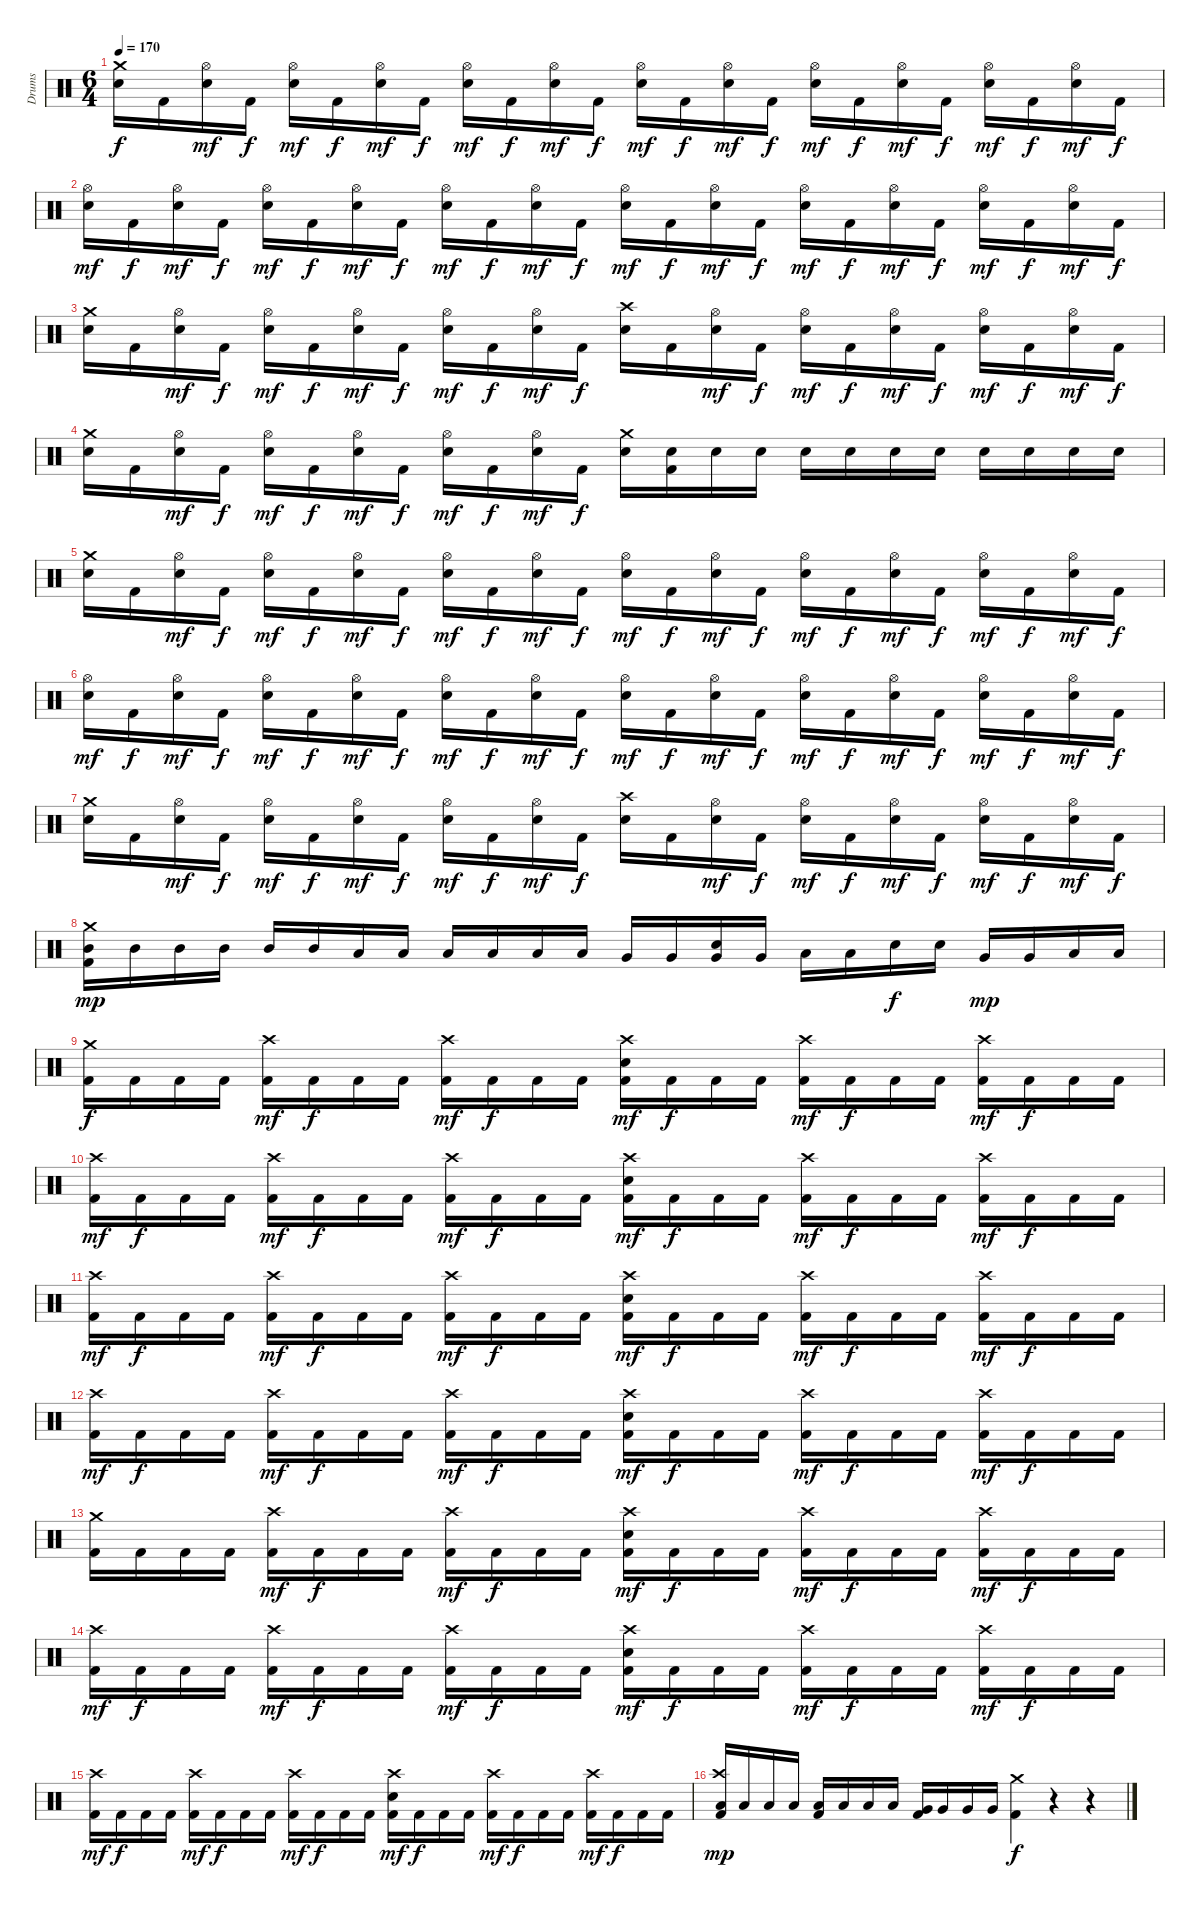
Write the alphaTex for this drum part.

\track ("Drums" "Drums") {instrument percussion}
\staff {score}
\articulation defaults
\ts (6 4)
\tempo 170
\clef neutral
\ks c
("Crash medium (hit)" "Electric Snare (hit)").16{dy f} "Kick (hit) 2".16 ("Hi-Hat (open)" "Electric Snare (hit)").16{dy mf} "Kick (hit) 2".16{dy f} ("Hi-Hat (open)" "Electric Snare (hit)").16{dy mf} "Kick (hit) 2".16{dy f} ("Hi-Hat (open)" "Electric Snare (hit)").16{dy mf} "Kick (hit) 2".16{dy f} ("Hi-Hat (open)" "Electric Snare (hit)").16{dy mf} "Kick (hit) 2".16{dy f} ("Hi-Hat (open)" "Electric Snare (hit)").16{dy mf} "Kick (hit) 2".16{dy f} ("Hi-Hat (open)" "Electric Snare (hit)").16{dy mf} "Kick (hit) 2".16{dy f} ("Hi-Hat (open)" "Electric Snare (hit)").16{dy mf} "Kick (hit) 2".16{dy f} ("Hi-Hat (open)" "Electric Snare (hit)").16{dy mf} "Kick (hit) 2".16{dy f} ("Hi-Hat (open)" "Electric Snare (hit)").16{dy mf} "Kick (hit) 2".16{dy f} ("Hi-Hat (open)" "Electric Snare (hit)").16{dy mf} "Kick (hit) 2".16{dy f} ("Hi-Hat (open)" "Electric Snare (hit)").16{dy mf} "Kick (hit) 2".16{dy f} |
("Hi-Hat (open)" "Electric Snare (hit)").16{dy mf} "Kick (hit) 2".16{dy f} ("Hi-Hat (open)" "Electric Snare (hit)").16{dy mf} "Kick (hit) 2".16{dy f} ("Hi-Hat (open)" "Electric Snare (hit)").16{dy mf} "Kick (hit) 2".16{dy f} ("Hi-Hat (open)" "Electric Snare (hit)").16{dy mf} "Kick (hit) 2".16{dy f} ("Hi-Hat (open)" "Electric Snare (hit)").16{dy mf} "Kick (hit) 2".16{dy f} ("Hi-Hat (open)" "Electric Snare (hit)").16{dy mf} "Kick (hit) 2".16{dy f} ("Hi-Hat (open)" "Electric Snare (hit)").16{dy mf} "Kick (hit) 2".16{dy f} ("Hi-Hat (open)" "Electric Snare (hit)").16{dy mf} "Kick (hit) 2".16{dy f} ("Hi-Hat (open)" "Electric Snare (hit)").16{dy mf} "Kick (hit) 2".16{dy f} ("Hi-Hat (open)" "Electric Snare (hit)").16{dy mf} "Kick (hit) 2".16{dy f} ("Hi-Hat (open)" "Electric Snare (hit)").16{dy mf} "Kick (hit) 2".16{dy f} ("Hi-Hat (open)" "Electric Snare (hit)").16{dy mf} "Kick (hit) 2".16{dy f} |
("Crash medium (hit)" "Electric Snare (hit)").16 "Kick (hit) 2".16 ("Hi-Hat (open)" "Electric Snare (hit)").16{dy mf} "Kick (hit) 2".16{dy f} ("Hi-Hat (open)" "Electric Snare (hit)").16{dy mf} "Kick (hit) 2".16{dy f} ("Hi-Hat (open)" "Electric Snare (hit)").16{dy mf} "Kick (hit) 2".16{dy f} ("Hi-Hat (open)" "Electric Snare (hit)").16{dy mf} "Kick (hit) 2".16{dy f} ("Hi-Hat (open)" "Electric Snare (hit)").16{dy mf} "Kick (hit) 2".16{dy f} ("Crash high (hit)" "Electric Snare (hit)").16 "Kick (hit) 2".16 ("Hi-Hat (open)" "Electric Snare (hit)").16{dy mf} "Kick (hit) 2".16{dy f} ("Hi-Hat (open)" "Electric Snare (hit)").16{dy mf} "Kick (hit) 2".16{dy f} ("Hi-Hat (open)" "Electric Snare (hit)").16{dy mf} "Kick (hit) 2".16{dy f} ("Hi-Hat (open)" "Electric Snare (hit)").16{dy mf} "Kick (hit) 2".16{dy f} ("Hi-Hat (open)" "Electric Snare (hit)").16{dy mf} "Kick (hit) 2".16{dy f} |
("Crash medium (hit)" "Electric Snare (hit)").16 "Kick (hit) 2".16 ("Hi-Hat (open)" "Electric Snare (hit)").16{dy mf} "Kick (hit) 2".16{dy f} ("Hi-Hat (open)" "Electric Snare (hit)").16{dy mf} "Kick (hit) 2".16{dy f} ("Hi-Hat (open)" "Electric Snare (hit)").16{dy mf} "Kick (hit) 2".16{dy f} ("Hi-Hat (open)" "Electric Snare (hit)").16{dy mf} "Kick (hit) 2".16{dy f} ("Hi-Hat (open)" "Electric Snare (hit)").16{dy mf} "Kick (hit) 2".16{dy f} ("Crash medium (hit)" "Electric Snare (hit)").16 ("Electric Snare (hit)" "Kick (hit) 2").16 "Electric Snare (hit)".16 "Electric Snare (hit)".16 "Electric Snare (hit)".16 "Electric Snare (hit)".16 "Electric Snare (hit)".16 "Electric Snare (hit)".16 "Electric Snare (hit)".16 "Electric Snare (hit)".16 "Electric Snare (hit)".16 "Electric Snare (hit)".16 |
("Crash medium (hit)" "Electric Snare (hit)").16 "Kick (hit) 2".16 ("Hi-Hat (open)" "Electric Snare (hit)").16{dy mf} "Kick (hit) 2".16{dy f} ("Hi-Hat (open)" "Electric Snare (hit)").16{dy mf} "Kick (hit) 2".16{dy f} ("Hi-Hat (open)" "Electric Snare (hit)").16{dy mf} "Kick (hit) 2".16{dy f} ("Hi-Hat (open)" "Electric Snare (hit)").16{dy mf} "Kick (hit) 2".16{dy f} ("Hi-Hat (open)" "Electric Snare (hit)").16{dy mf} "Kick (hit) 2".16{dy f} ("Hi-Hat (open)" "Electric Snare (hit)").16{dy mf} "Kick (hit) 2".16{dy f} ("Hi-Hat (open)" "Electric Snare (hit)").16{dy mf} "Kick (hit) 2".16{dy f} ("Hi-Hat (open)" "Electric Snare (hit)").16{dy mf} "Kick (hit) 2".16{dy f} ("Hi-Hat (open)" "Electric Snare (hit)").16{dy mf} "Kick (hit) 2".16{dy f} ("Hi-Hat (open)" "Electric Snare (hit)").16{dy mf} "Kick (hit) 2".16{dy f} ("Hi-Hat (open)" "Electric Snare (hit)").16{dy mf} "Kick (hit) 2".16{dy f} |
("Hi-Hat (open)" "Electric Snare (hit)").16{dy mf} "Kick (hit) 2".16{dy f} ("Hi-Hat (open)" "Electric Snare (hit)").16{dy mf} "Kick (hit) 2".16{dy f} ("Hi-Hat (open)" "Electric Snare (hit)").16{dy mf} "Kick (hit) 2".16{dy f} ("Hi-Hat (open)" "Electric Snare (hit)").16{dy mf} "Kick (hit) 2".16{dy f} ("Hi-Hat (open)" "Electric Snare (hit)").16{dy mf} "Kick (hit) 2".16{dy f} ("Hi-Hat (open)" "Electric Snare (hit)").16{dy mf} "Kick (hit) 2".16{dy f} ("Hi-Hat (open)" "Electric Snare (hit)").16{dy mf} "Kick (hit) 2".16{dy f} ("Hi-Hat (open)" "Electric Snare (hit)").16{dy mf} "Kick (hit) 2".16{dy f} ("Hi-Hat (open)" "Electric Snare (hit)").16{dy mf} "Kick (hit) 2".16{dy f} ("Hi-Hat (open)" "Electric Snare (hit)").16{dy mf} "Kick (hit) 2".16{dy f} ("Hi-Hat (open)" "Electric Snare (hit)").16{dy mf} "Kick (hit) 2".16{dy f} ("Hi-Hat (open)" "Electric Snare (hit)").16{dy mf} "Kick (hit) 2".16{dy f} |
("Crash medium (hit)" "Electric Snare (hit)").16 "Kick (hit) 2".16 ("Hi-Hat (open)" "Electric Snare (hit)").16{dy mf} "Kick (hit) 2".16{dy f} ("Hi-Hat (open)" "Electric Snare (hit)").16{dy mf} "Kick (hit) 2".16{dy f} ("Hi-Hat (open)" "Electric Snare (hit)").16{dy mf} "Kick (hit) 2".16{dy f} ("Hi-Hat (open)" "Electric Snare (hit)").16{dy mf} "Kick (hit) 2".16{dy f} ("Hi-Hat (open)" "Electric Snare (hit)").16{dy mf} "Kick (hit) 2".16{dy f} ("Crash high (hit)" "Electric Snare (hit)").16 "Kick (hit) 2".16 ("Hi-Hat (open)" "Electric Snare (hit)").16{dy mf} "Kick (hit) 2".16{dy f} ("Hi-Hat (open)" "Electric Snare (hit)").16{dy mf} "Kick (hit) 2".16{dy f} ("Hi-Hat (open)" "Electric Snare (hit)").16{dy mf} "Kick (hit) 2".16{dy f} ("Hi-Hat (open)" "Electric Snare (hit)").16{dy mf} "Kick (hit) 2".16{dy f} ("Hi-Hat (open)" "Electric Snare (hit)").16{dy mf} "Kick (hit) 2".16{dy f} |
("Crash medium (hit)" "Mid Tom (hit)" "Kick (hit) 2").16{dy mp} "Mid Tom (hit)".16 "Mid Tom (hit)".16 "Mid Tom (hit)".16 "Mid Tom (hit)".16 "Mid Tom (hit)".16 "Low Tom (hit)".16 "Low Tom (hit)".16 "Low Tom (hit)".16 "Low Tom (hit)".16 "Low Tom (hit)".16 "Low Tom (hit)".16 "Very Low Tom (hit)".16 "Very Low Tom (hit)".16 ("Very Low Tom (hit)" "Electric Snare (hit)").16 "Very Low Tom (hit)".16 "Low Floor Tom (hit)".16 "Low Floor Tom (hit)".16 "Electric Snare (hit)".16{dy f} "Electric Snare (hit)".16 "Very Low Tom (hit)".16{dy mp} "Very Low Tom (hit)".16 "Low Floor Tom (hit)".16 "Low Floor Tom (hit)".16 |
("Crash medium (hit)" "Kick (hit) 2").16{dy f} "Kick (hit) 2".16 "Kick (hit) 2".16 "Kick (hit) 2".16 ("Crash high (hit)" "Kick (hit) 2").16{dy mf} "Kick (hit) 2".16{dy f} "Kick (hit) 2".16 "Kick (hit) 2".16 ("Crash high (hit)" "Kick (hit) 2").16{dy mf} "Kick (hit) 2".16{dy f} "Kick (hit) 2".16 "Kick (hit) 2".16 ("Crash high (hit)" "Electric Snare (hit)" "Kick (hit) 2").16{dy mf} "Kick (hit) 2".16{dy f} "Kick (hit) 2".16 "Kick (hit) 2".16 ("Crash high (hit)" "Kick (hit) 2").16{dy mf} "Kick (hit) 2".16{dy f} "Kick (hit) 2".16 "Kick (hit) 2".16 ("Crash high (hit)" "Kick (hit) 2").16{dy mf} "Kick (hit) 2".16{dy f} "Kick (hit) 2".16 "Kick (hit) 2".16 |
("Crash high (hit)" "Kick (hit) 2").16{dy mf} "Kick (hit) 2".16{dy f} "Kick (hit) 2".16 "Kick (hit) 2".16 ("Crash high (hit)" "Kick (hit) 2").16{dy mf} "Kick (hit) 2".16{dy f} "Kick (hit) 2".16 "Kick (hit) 2".16 ("Crash high (hit)" "Kick (hit) 2").16{dy mf} "Kick (hit) 2".16{dy f} "Kick (hit) 2".16 "Kick (hit) 2".16 ("Crash high (hit)" "Electric Snare (hit)" "Kick (hit) 2").16{dy mf} "Kick (hit) 2".16{dy f} "Kick (hit) 2".16 "Kick (hit) 2".16 ("Crash high (hit)" "Kick (hit) 2").16{dy mf} "Kick (hit) 2".16{dy f} "Kick (hit) 2".16 "Kick (hit) 2".16 ("Crash high (hit)" "Kick (hit) 2").16{dy mf} "Kick (hit) 2".16{dy f} "Kick (hit) 2".16 "Kick (hit) 2".16 |
("Crash high (hit)" "Kick (hit) 2").16{dy mf} "Kick (hit) 2".16{dy f} "Kick (hit) 2".16 "Kick (hit) 2".16 ("Crash high (hit)" "Kick (hit) 2").16{dy mf} "Kick (hit) 2".16{dy f} "Kick (hit) 2".16 "Kick (hit) 2".16 ("Crash high (hit)" "Kick (hit) 2").16{dy mf} "Kick (hit) 2".16{dy f} "Kick (hit) 2".16 "Kick (hit) 2".16 ("Crash high (hit)" "Electric Snare (hit)" "Kick (hit) 2").16{dy mf} "Kick (hit) 2".16{dy f} "Kick (hit) 2".16 "Kick (hit) 2".16 ("Crash high (hit)" "Kick (hit) 2").16{dy mf} "Kick (hit) 2".16{dy f} "Kick (hit) 2".16 "Kick (hit) 2".16 ("Crash high (hit)" "Kick (hit) 2").16{dy mf} "Kick (hit) 2".16{dy f} "Kick (hit) 2".16 "Kick (hit) 2".16 |
("Crash high (hit)" "Kick (hit) 2").16{dy mf} "Kick (hit) 2".16{dy f} "Kick (hit) 2".16 "Kick (hit) 2".16 ("Crash high (hit)" "Kick (hit) 2").16{dy mf} "Kick (hit) 2".16{dy f} "Kick (hit) 2".16 "Kick (hit) 2".16 ("Crash high (hit)" "Kick (hit) 2").16{dy mf} "Kick (hit) 2".16{dy f} "Kick (hit) 2".16 "Kick (hit) 2".16 ("Crash high (hit)" "Electric Snare (hit)" "Kick (hit) 2").16{dy mf} "Kick (hit) 2".16{dy f} "Kick (hit) 2".16 "Kick (hit) 2".16 ("Crash high (hit)" "Kick (hit) 2").16{dy mf} "Kick (hit) 2".16{dy f} "Kick (hit) 2".16 "Kick (hit) 2".16 ("Crash high (hit)" "Kick (hit) 2").16{dy mf} "Kick (hit) 2".16{dy f} "Kick (hit) 2".16 "Kick (hit) 2".16 |
("Crash medium (hit)" "Kick (hit) 2").16 "Kick (hit) 2".16 "Kick (hit) 2".16 "Kick (hit) 2".16 ("Crash high (hit)" "Kick (hit) 2").16{dy mf} "Kick (hit) 2".16{dy f} "Kick (hit) 2".16 "Kick (hit) 2".16 ("Crash high (hit)" "Kick (hit) 2").16{dy mf} "Kick (hit) 2".16{dy f} "Kick (hit) 2".16 "Kick (hit) 2".16 ("Crash high (hit)" "Electric Snare (hit)" "Kick (hit) 2").16{dy mf} "Kick (hit) 2".16{dy f} "Kick (hit) 2".16 "Kick (hit) 2".16 ("Crash high (hit)" "Kick (hit) 2").16{dy mf} "Kick (hit) 2".16{dy f} "Kick (hit) 2".16 "Kick (hit) 2".16 ("Crash high (hit)" "Kick (hit) 2").16{dy mf} "Kick (hit) 2".16{dy f} "Kick (hit) 2".16 "Kick (hit) 2".16 |
("Crash high (hit)" "Kick (hit) 2").16{dy mf} "Kick (hit) 2".16{dy f} "Kick (hit) 2".16 "Kick (hit) 2".16 ("Crash high (hit)" "Kick (hit) 2").16{dy mf} "Kick (hit) 2".16{dy f} "Kick (hit) 2".16 "Kick (hit) 2".16 ("Crash high (hit)" "Kick (hit) 2").16{dy mf} "Kick (hit) 2".16{dy f} "Kick (hit) 2".16 "Kick (hit) 2".16 ("Crash high (hit)" "Electric Snare (hit)" "Kick (hit) 2").16{dy mf} "Kick (hit) 2".16{dy f} "Kick (hit) 2".16 "Kick (hit) 2".16 ("Crash high (hit)" "Kick (hit) 2").16{dy mf} "Kick (hit) 2".16{dy f} "Kick (hit) 2".16 "Kick (hit) 2".16 ("Crash high (hit)" "Kick (hit) 2").16{dy mf} "Kick (hit) 2".16{dy f} "Kick (hit) 2".16 "Kick (hit) 2".16 |
("Crash high (hit)" "Kick (hit) 2").16{dy mf} "Kick (hit) 2".16{dy f} "Kick (hit) 2".16 "Kick (hit) 2".16 ("Crash high (hit)" "Kick (hit) 2").16{dy mf} "Kick (hit) 2".16{dy f} "Kick (hit) 2".16 "Kick (hit) 2".16 ("Crash high (hit)" "Kick (hit) 2").16{dy mf} "Kick (hit) 2".16{dy f} "Kick (hit) 2".16 "Kick (hit) 2".16 ("Crash high (hit)" "Electric Snare (hit)" "Kick (hit) 2").16{dy mf} "Kick (hit) 2".16{dy f} "Kick (hit) 2".16 "Kick (hit) 2".16 ("Crash high (hit)" "Kick (hit) 2").16{dy mf} "Kick (hit) 2".16{dy f} "Kick (hit) 2".16 "Kick (hit) 2".16 ("Crash high (hit)" "Kick (hit) 2").16{dy mf} "Kick (hit) 2".16{dy f} "Kick (hit) 2".16 "Kick (hit) 2".16 |
("Crash high (hit)" "Low Tom (hit)" "Kick (hit) 2").16{dy mp} "Low Tom (hit)".16 "Low Tom (hit)".16 "Low Tom (hit)".16 ("Low Floor Tom (hit)" "Kick (hit) 2").16 "Low Floor Tom (hit)".16 "Low Floor Tom (hit)".16 "Low Floor Tom (hit)".16 ("Very Low Tom (hit)" "Kick (hit) 2").16 "Very Low Tom (hit)".16 "Very Low Tom (hit)".16 "Very Low Tom (hit)".16 ("Crash medium (hit)" "Kick (hit) 2").4{dy f} r.4 r.4
